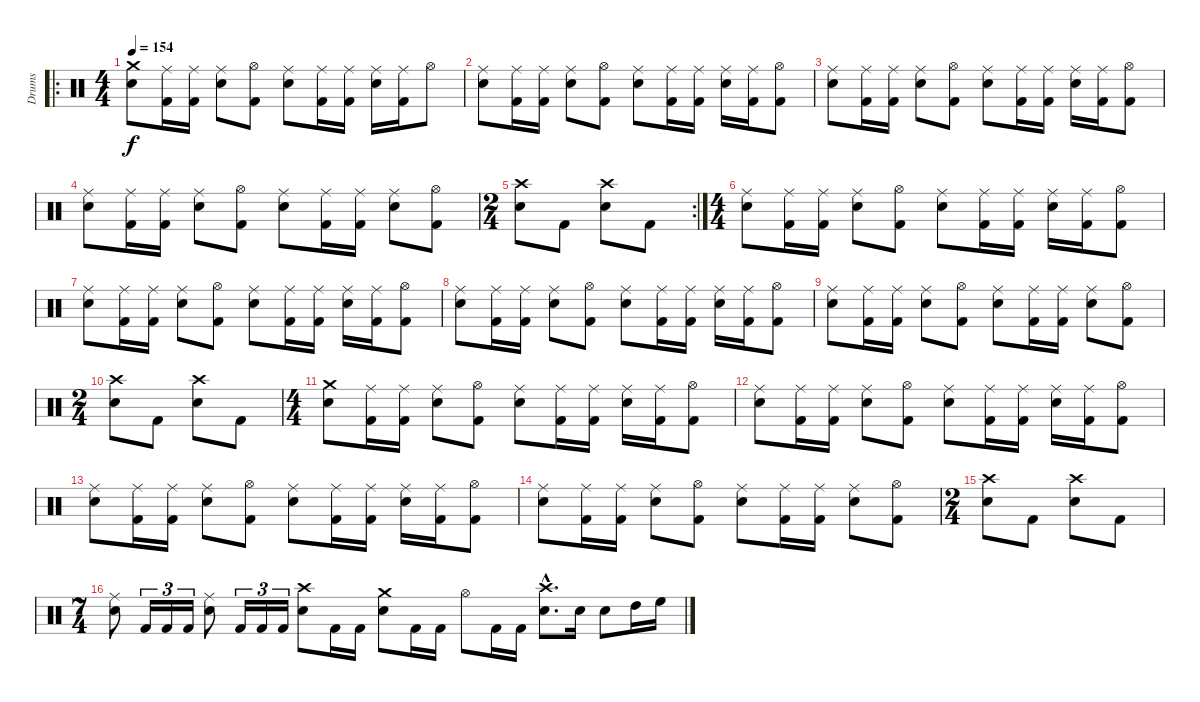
\track ("Drums" "Drums") {instrument percussion}
\staff {score}
\articulation defaults
\ro
\ts (4 4)
\tempo 154
\clef neutral
\ks c
("Crash medium (hit)" "Snare (hit) 2").8{dy f} ("Ride (middle)" "Kick (hit) 2").16 ("Ride (middle)" "Kick (hit) 2").16 ("Ride (middle)" "Snare (hit) 2").8 ("Hi-Hat (open)" "Kick (hit) 2").8 ("Ride (middle)" "Snare (hit) 2").8 ("Ride (middle)" "Kick (hit) 2").16 ("Ride (middle)" "Kick (hit) 2").16 ("Ride (middle)" "Snare (hit) 2").16 ("Ride (middle)" "Kick (hit) 2").16 "Hi-Hat (open)".8 |
("Ride (middle)" "Snare (hit) 2").8 ("Ride (middle)" "Kick (hit) 2").16 ("Ride (middle)" "Kick (hit) 2").16 ("Ride (middle)" "Snare (hit) 2").8 ("Hi-Hat (open)" "Kick (hit) 2").8 ("Ride (middle)" "Snare (hit) 2").8 ("Ride (middle)" "Kick (hit) 2").16 ("Ride (middle)" "Kick (hit) 2").16 ("Ride (middle)" "Snare (hit) 2").16 ("Ride (middle)" "Kick (hit) 2").16 ("Hi-Hat (open)" "Kick (hit) 2").8 |
("Ride (middle)" "Snare (hit) 2").8 ("Ride (middle)" "Kick (hit) 2").16 ("Ride (middle)" "Kick (hit) 2").16 ("Ride (middle)" "Snare (hit) 2").8 ("Hi-Hat (open)" "Kick (hit) 2").8 ("Ride (middle)" "Snare (hit) 2").8 ("Ride (middle)" "Kick (hit) 2").16 ("Ride (middle)" "Kick (hit) 2").16 ("Ride (middle)" "Snare (hit) 2").16 ("Ride (middle)" "Kick (hit) 2").16 ("Hi-Hat (open)" "Kick (hit) 2").8 |
("Ride (middle)" "Snare (hit) 2").8 ("Ride (middle)" "Kick (hit) 2").16 ("Ride (middle)" "Kick (hit) 2").16 ("Ride (middle)" "Snare (hit) 2").8 ("Hi-Hat (open)" "Kick (hit) 2").8 ("Ride (middle)" "Snare (hit) 2").8 ("Ride (middle)" "Kick (hit) 2").16 ("Ride (middle)" "Kick (hit) 2").16 ("Ride (middle)" "Snare (hit) 2").8 ("Hi-Hat (open)" "Kick (hit) 2").8 |
\rc 2
\ts (2 4)
("Crash high (hit)" "Snare (hit) 2").8 "Kick (hit) 2".8 ("Crash high (hit)" "Snare (hit) 2").8 "Kick (hit) 2".8 |
\ts (4 4)
("Ride (middle)" "Snare (hit) 2").8 ("Ride (middle)" "Kick (hit) 2").16 ("Ride (middle)" "Kick (hit) 2").16 ("Ride (middle)" "Snare (hit) 2").8 ("Hi-Hat (open)" "Kick (hit) 2").8 ("Ride (middle)" "Snare (hit) 2").8 ("Ride (middle)" "Kick (hit) 2").16 ("Ride (middle)" "Kick (hit) 2").16 ("Ride (middle)" "Snare (hit) 2").16 ("Ride (middle)" "Kick (hit) 2").16 ("Hi-Hat (open)" "Kick (hit) 2").8 |
("Ride (middle)" "Snare (hit) 2").8 ("Ride (middle)" "Kick (hit) 2").16 ("Ride (middle)" "Kick (hit) 2").16 ("Ride (middle)" "Snare (hit) 2").8 ("Hi-Hat (open)" "Kick (hit) 2").8 ("Ride (middle)" "Snare (hit) 2").8 ("Ride (middle)" "Kick (hit) 2").16 ("Ride (middle)" "Kick (hit) 2").16 ("Ride (middle)" "Snare (hit) 2").16 ("Ride (middle)" "Kick (hit) 2").16 ("Hi-Hat (open)" "Kick (hit) 2").8 |
("Ride (middle)" "Snare (hit) 2").8 ("Ride (middle)" "Kick (hit) 2").16 ("Ride (middle)" "Kick (hit) 2").16 ("Ride (middle)" "Snare (hit) 2").8 ("Hi-Hat (open)" "Kick (hit) 2").8 ("Ride (middle)" "Snare (hit) 2").8 ("Ride (middle)" "Kick (hit) 2").16 ("Ride (middle)" "Kick (hit) 2").16 ("Ride (middle)" "Snare (hit) 2").16 ("Ride (middle)" "Kick (hit) 2").16 ("Hi-Hat (open)" "Kick (hit) 2").8 |
("Ride (middle)" "Snare (hit) 2").8 ("Ride (middle)" "Kick (hit) 2").16 ("Ride (middle)" "Kick (hit) 2").16 ("Ride (middle)" "Snare (hit) 2").8 ("Hi-Hat (open)" "Kick (hit) 2").8 ("Ride (middle)" "Snare (hit) 2").8 ("Ride (middle)" "Kick (hit) 2").16 ("Ride (middle)" "Kick (hit) 2").16 ("Ride (middle)" "Snare (hit) 2").8 ("Hi-Hat (open)" "Kick (hit) 2").8 |
\ts (2 4)
("Crash high (hit)" "Snare (hit) 2").8 "Kick (hit) 2".8 ("Crash high (hit)" "Snare (hit) 2").8 "Kick (hit) 2".8 |
\ts (4 4)
("Crash medium (hit)" "Snare (hit) 2").8 ("Ride (middle)" "Kick (hit) 2").16 ("Ride (middle)" "Kick (hit) 2").16 ("Ride (middle)" "Snare (hit) 2").8 ("Hi-Hat (open)" "Kick (hit) 2").8 ("Ride (middle)" "Snare (hit) 2").8 ("Ride (middle)" "Kick (hit) 2").16 ("Ride (middle)" "Kick (hit) 2").16 ("Ride (middle)" "Snare (hit) 2").16 ("Ride (middle)" "Kick (hit) 2").16 ("Hi-Hat (open)" "Kick (hit) 2").8 |
("Ride (middle)" "Snare (hit) 2").8 ("Ride (middle)" "Kick (hit) 2").16 ("Ride (middle)" "Kick (hit) 2").16 ("Ride (middle)" "Snare (hit) 2").8 ("Hi-Hat (open)" "Kick (hit) 2").8 ("Ride (middle)" "Snare (hit) 2").8 ("Ride (middle)" "Kick (hit) 2").16 ("Ride (middle)" "Kick (hit) 2").16 ("Ride (middle)" "Snare (hit) 2").16 ("Ride (middle)" "Kick (hit) 2").16 ("Hi-Hat (open)" "Kick (hit) 2").8 |
("Ride (middle)" "Snare (hit) 2").8 ("Ride (middle)" "Kick (hit) 2").16 ("Ride (middle)" "Kick (hit) 2").16 ("Ride (middle)" "Snare (hit) 2").8 ("Hi-Hat (open)" "Kick (hit) 2").8 ("Ride (middle)" "Snare (hit) 2").8 ("Ride (middle)" "Kick (hit) 2").16 ("Ride (middle)" "Kick (hit) 2").16 ("Ride (middle)" "Snare (hit) 2").16 ("Ride (middle)" "Kick (hit) 2").16 ("Hi-Hat (open)" "Kick (hit) 2").8 |
("Ride (middle)" "Snare (hit) 2").8 ("Ride (middle)" "Kick (hit) 2").16 ("Ride (middle)" "Kick (hit) 2").16 ("Ride (middle)" "Snare (hit) 2").8 ("Hi-Hat (open)" "Kick (hit) 2").8 ("Ride (middle)" "Snare (hit) 2").8 ("Ride (middle)" "Kick (hit) 2").16 ("Ride (middle)" "Kick (hit) 2").16 ("Ride (middle)" "Snare (hit) 2").8 ("Hi-Hat (open)" "Kick (hit) 2").8 |
\ts (2 4)
("Crash high (hit)" "Snare (hit) 2").8 "Kick (hit) 2".8 ("Crash high (hit)" "Snare (hit) 2").8 "Kick (hit) 2".8 |
\ts (7 4)
("Ride (middle)" "Snare (hit) 2").8 "Kick (hit) 2".16{tu (3 2)} "Kick (hit) 2".16{tu (3 2)} "Kick (hit) 2".16{tu (3 2)} ("Ride (middle)" "Snare (hit) 2").8 "Kick (hit) 2".16{tu (3 2)} "Kick (hit) 2".16{tu (3 2)} "Kick (hit) 2".16{tu (3 2)} ("Crash high (hit)" "Snare (hit) 2").8 "Kick (hit) 2".16 "Kick (hit) 2".16 ("Crash medium (hit)" "Snare (hit) 2").8 "Kick (hit) 2".16 "Kick (hit) 2".16 "Hi-Hat (open)".8 "Kick (hit) 2".16 "Kick (hit) 2".16 ("Crash high (hit)"{hac} "Snare (hit) 2"{hac}).8{d} "Snare (hit) 2".16 "Snare (hit) 2".8 "High Tom (hit)".16 "High Floor Tom (hit)".16
